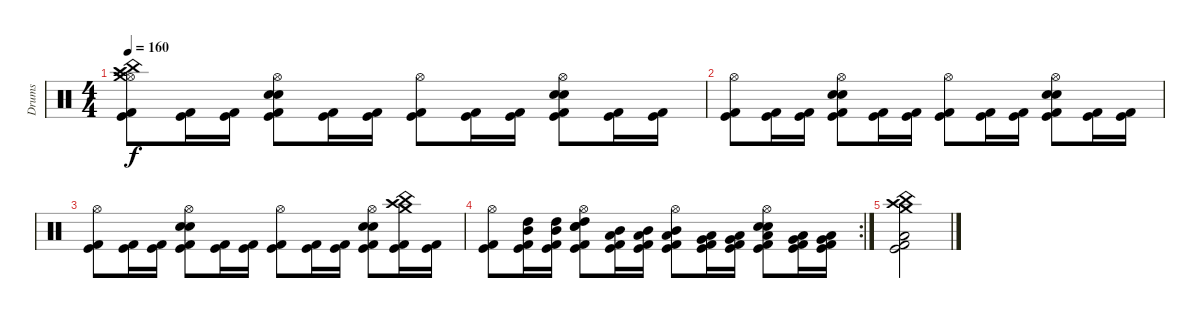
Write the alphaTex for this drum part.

\track ("Drums" "Drums") {instrument percussion}
\staff {score}
\articulation defaults
\ts (4 4)
\tempo 160
\clef neutral
\ks c
("Crash high (hit)" "Hi-Hat (open)" "Crash medium (hit)" "China (hit)" "Kick (hit) 2" "Kick (hit)").8{dy f} ("Kick (hit) 2" "Kick (hit)").16 ("Kick (hit) 2" "Kick (hit)").16 ("Hi-Hat (open)" "Electric Snare (hit)" "Snare (hit) 2" "Kick (hit) 2" "Kick (hit)").8 ("Kick (hit) 2" "Kick (hit)").16 ("Kick (hit) 2" "Kick (hit)").16 ("Hi-Hat (open)" "Kick (hit) 2" "Kick (hit)").8 ("Kick (hit) 2" "Kick (hit)").16 ("Kick (hit) 2" "Kick (hit)").16 ("Hi-Hat (open)" "Electric Snare (hit)" "Snare (hit) 2" "Kick (hit) 2" "Kick (hit)").8 ("Kick (hit) 2" "Kick (hit)").16 ("Kick (hit) 2" "Kick (hit)").16 |
("Hi-Hat (open)" "Kick (hit) 2" "Kick (hit)").8 ("Kick (hit) 2" "Kick (hit)").16 ("Kick (hit) 2" "Kick (hit)").16 ("Hi-Hat (open)" "Electric Snare (hit)" "Snare (hit) 2" "Kick (hit) 2" "Kick (hit)").8 ("Kick (hit) 2" "Kick (hit)").16 ("Kick (hit) 2" "Kick (hit)").16 ("Hi-Hat (open)" "Kick (hit) 2" "Kick (hit)").8 ("Kick (hit) 2" "Kick (hit)").16 ("Kick (hit) 2" "Kick (hit)").16 ("Hi-Hat (open)" "Electric Snare (hit)" "Snare (hit) 2" "Kick (hit) 2" "Kick (hit)").8 ("Kick (hit) 2" "Kick (hit)").16 ("Kick (hit) 2" "Kick (hit)").16 |
("Hi-Hat (open)" "Kick (hit) 2" "Kick (hit)").8 ("Kick (hit) 2" "Kick (hit)").16 ("Kick (hit) 2" "Kick (hit)").16 ("Hi-Hat (open)" "Electric Snare (hit)" "Snare (hit) 2" "Kick (hit) 2" "Kick (hit)").8 ("Kick (hit) 2" "Kick (hit)").16 ("Kick (hit) 2" "Kick (hit)").16 ("Hi-Hat (open)" "Kick (hit) 2" "Kick (hit)").8 ("Kick (hit) 2" "Kick (hit)").16 ("Kick (hit) 2" "Kick (hit)").16 ("Hi-Hat (open)" "Electric Snare (hit)" "Snare (hit) 2" "Kick (hit) 2" "Kick (hit)").8 ("China (hit)" "Crash medium (hit)" "Crash high (hit)" "Kick (hit) 2" "Kick (hit)").16 ("Kick (hit) 2" "Kick (hit)").16 |
\rc 2
("Hi-Hat (open)" "Kick (hit) 2" "Kick (hit)").8 ("High Tom (hit)" "Mid Tom (hit)" "Kick (hit) 2" "Kick (hit)").16 ("High Tom (hit)" "Mid Tom (hit)" "Kick (hit) 2" "Kick (hit)").16 ("High Tom (hit)" "Hi-Hat (open)" "Electric Snare (hit)" "Snare (hit) 2" "Kick (hit) 2" "Kick (hit)").8 ("Low Tom (hit)" "Mid Tom (hit)" "Kick (hit) 2" "Kick (hit)").16 ("Low Tom (hit)" "Mid Tom (hit)" "Kick (hit) 2" "Kick (hit)").16 ("Hi-Hat (open)" "Low Tom (hit)" "Mid Tom (hit)" "Kick (hit) 2" "Kick (hit)").8 ("Very Low Tom (hit)" "Low Tom (hit)" "Kick (hit) 2" "Kick (hit)").16 ("Very Low Tom (hit)" "Low Tom (hit)" "Kick (hit) 2" "Kick (hit)").16 ("Low Tom (hit)" "Hi-Hat (open)" "Electric Snare (hit)" "Snare (hit) 2" "Kick (hit) 2" "Kick (hit)").8 ("Low Floor Tom (hit)" "Very Low Tom (hit)" "Kick (hit) 2" "Kick (hit)").16 ("Low Floor Tom (hit)" "Very Low Tom (hit)" "Kick (hit) 2" "Kick (hit)").16 |
("Crash high (hit)" "Crash medium (hit)" "China (hit)" "Low Tom (hit)" "Kick (hit) 2" "Kick (hit)").2
